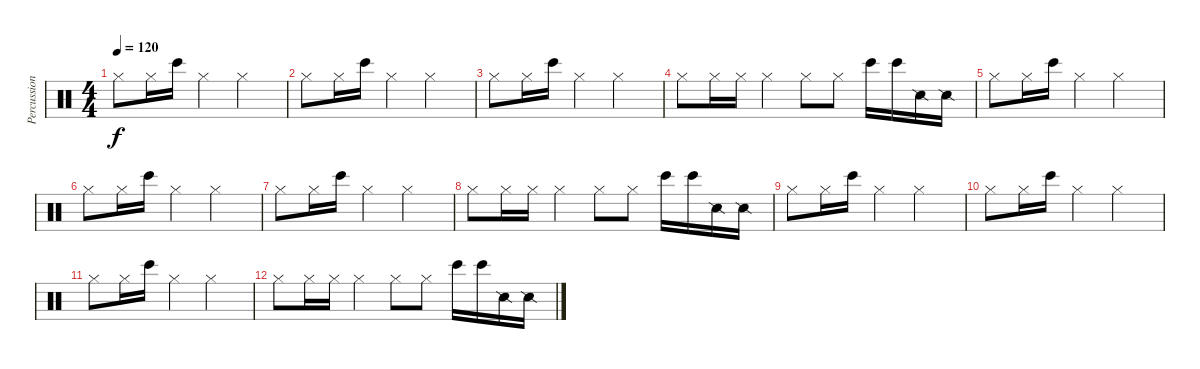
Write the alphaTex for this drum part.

\track ("Percussioni" "Percussion") {instrument percussion}
\staff {score}
\articulation defaults
\ts (4 4)
\tempo 120
\clef neutral
\ks c "Hi-Hat (closed)".8{dy f} "Hi-Hat (closed)".16 "Bongo High (hit)".16 "Hi-Hat (closed)".4 "Hi-Hat (closed)".2
|
"Hi-Hat (closed)".8 "Hi-Hat (closed)".16 "Bongo High (hit)".16 "Hi-Hat (closed)".4 "Hi-Hat (closed)".2 |
"Hi-Hat (closed)".8 "Hi-Hat (closed)".16 "Bongo High (hit)".16 "Hi-Hat (closed)".4 "Hi-Hat (closed)".2 |
"Hi-Hat (closed)".8 "Hi-Hat (closed)".16 "Hi-Hat (closed)".16 "Hi-Hat (closed)".4 "Hi-Hat (closed)".8 "Hi-Hat (closed)".8 "Bongo High (hit)".16 "Bongo High (hit)".16 "Snare (side stick) 2".16 "Snare (side stick) 2".16 |
"Hi-Hat (closed)".8 "Hi-Hat (closed)".16 "Bongo High (hit)".16 "Hi-Hat (closed)".4 "Hi-Hat (closed)".2 |
"Hi-Hat (closed)".8 "Hi-Hat (closed)".16 "Bongo High (hit)".16 "Hi-Hat (closed)".4 "Hi-Hat (closed)".2 |
"Hi-Hat (closed)".8 "Hi-Hat (closed)".16 "Bongo High (hit)".16 "Hi-Hat (closed)".4 "Hi-Hat (closed)".2 |
"Hi-Hat (closed)".8 "Hi-Hat (closed)".16 "Hi-Hat (closed)".16 "Hi-Hat (closed)".4 "Hi-Hat (closed)".8 "Hi-Hat (closed)".8 "Bongo High (hit)".16 "Bongo High (hit)".16 "Snare (side stick) 2".16 "Snare (side stick) 2".16 |
"Hi-Hat (closed)".8 "Hi-Hat (closed)".16 "Bongo High (hit)".16 "Hi-Hat (closed)".4 "Hi-Hat (closed)".2 |
"Hi-Hat (closed)".8 "Hi-Hat (closed)".16 "Bongo High (hit)".16 "Hi-Hat (closed)".4 "Hi-Hat (closed)".2 |
"Hi-Hat (closed)".8 "Hi-Hat (closed)".16 "Bongo High (hit)".16 "Hi-Hat (closed)".4 "Hi-Hat (closed)".2 |
"Hi-Hat (closed)".8 "Hi-Hat (closed)".16 "Hi-Hat (closed)".16 "Hi-Hat (closed)".4 "Hi-Hat (closed)".8 "Hi-Hat (closed)".8 "Bongo High (hit)".16 "Bongo High (hit)".16 "Snare (side stick) 2".16 "Snare (side stick) 2".16
